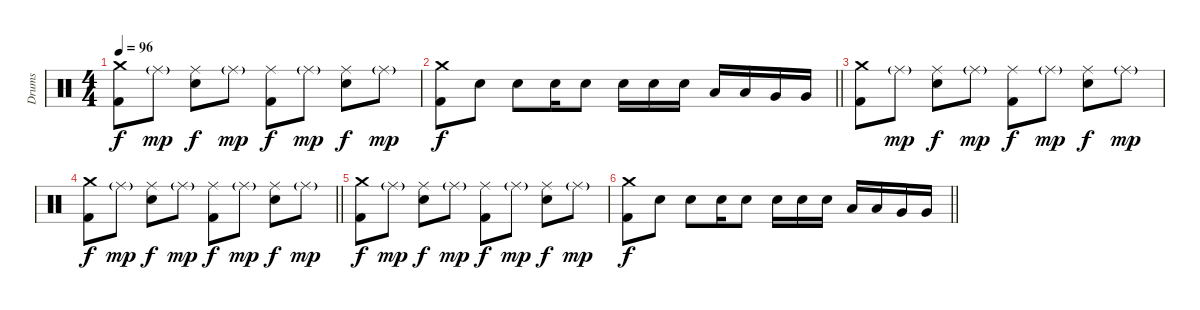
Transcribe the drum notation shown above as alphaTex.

\track ("Drums" "Drums") {instrument percussion}
\staff {score}
\articulation defaults
\ts (4 4)
\tempo 96
\clef neutral
\ks c
("Crash medium (hit)" "Kick (hit) 2").8{dy f} "Ride (middle)"{g}.8{dy mp} ("Ride (middle)" "Snare (hit) 2").8{dy f} "Ride (middle)"{g}.8{dy mp} ("Ride (middle)" "Kick (hit) 2").8{dy f} "Ride (middle)"{g}.8{dy mp} ("Ride (middle)" "Snare (hit) 2").8{dy f} "Ride (middle)"{g}.8{dy mp} |
\barLineRight lightlight
("Crash medium (hit)" "Kick (hit) 2").8{dy f} "Snare (hit) 2".8 "Snare (hit) 2".8 "Snare (hit) 2".16 "Snare (hit) 2".8 "Snare (hit) 2".16 "Snare (hit) 2".16 "Snare (hit) 2".16 "Low Tom (hit)".16 "Low Tom (hit)".16 "Very Low Tom (hit)".16 "Very Low Tom (hit)".16 |
("Crash medium (hit)" "Kick (hit) 2").8 "Ride (middle)"{g}.8{dy mp} ("Ride (middle)" "Snare (hit) 2").8{dy f} "Ride (middle)"{g}.8{dy mp} ("Ride (middle)" "Kick (hit) 2").8{dy f} "Ride (middle)"{g}.8{dy mp} ("Ride (middle)" "Snare (hit) 2").8{dy f} "Ride (middle)"{g}.8{dy mp} |
\barLineRight lightlight
("Crash medium (hit)" "Kick (hit) 2").8{dy f} "Ride (middle)"{g}.8{dy mp} ("Ride (middle)" "Snare (hit) 2").8{dy f} "Ride (middle)"{g}.8{dy mp} ("Ride (middle)" "Kick (hit) 2").8{dy f} "Ride (middle)"{g}.8{dy mp} ("Ride (middle)" "Snare (hit) 2").8{dy f} "Ride (middle)"{g}.8{dy mp} |
("Crash medium (hit)" "Kick (hit) 2").8{dy f} "Ride (middle)"{g}.8{dy mp} ("Ride (middle)" "Snare (hit) 2").8{dy f} "Ride (middle)"{g}.8{dy mp} ("Ride (middle)" "Kick (hit) 2").8{dy f} "Ride (middle)"{g}.8{dy mp} ("Ride (middle)" "Snare (hit) 2").8{dy f} "Ride (middle)"{g}.8{dy mp} |
\barLineRight lightlight
("Crash medium (hit)" "Kick (hit) 2").8{dy f} "Snare (hit) 2".8 "Snare (hit) 2".8 "Snare (hit) 2".16 "Snare (hit) 2".8 "Snare (hit) 2".16 "Snare (hit) 2".16 "Snare (hit) 2".16 "Low Tom (hit)".16 "Low Tom (hit)".16 "Very Low Tom (hit)".16 "Very Low Tom (hit)".16
